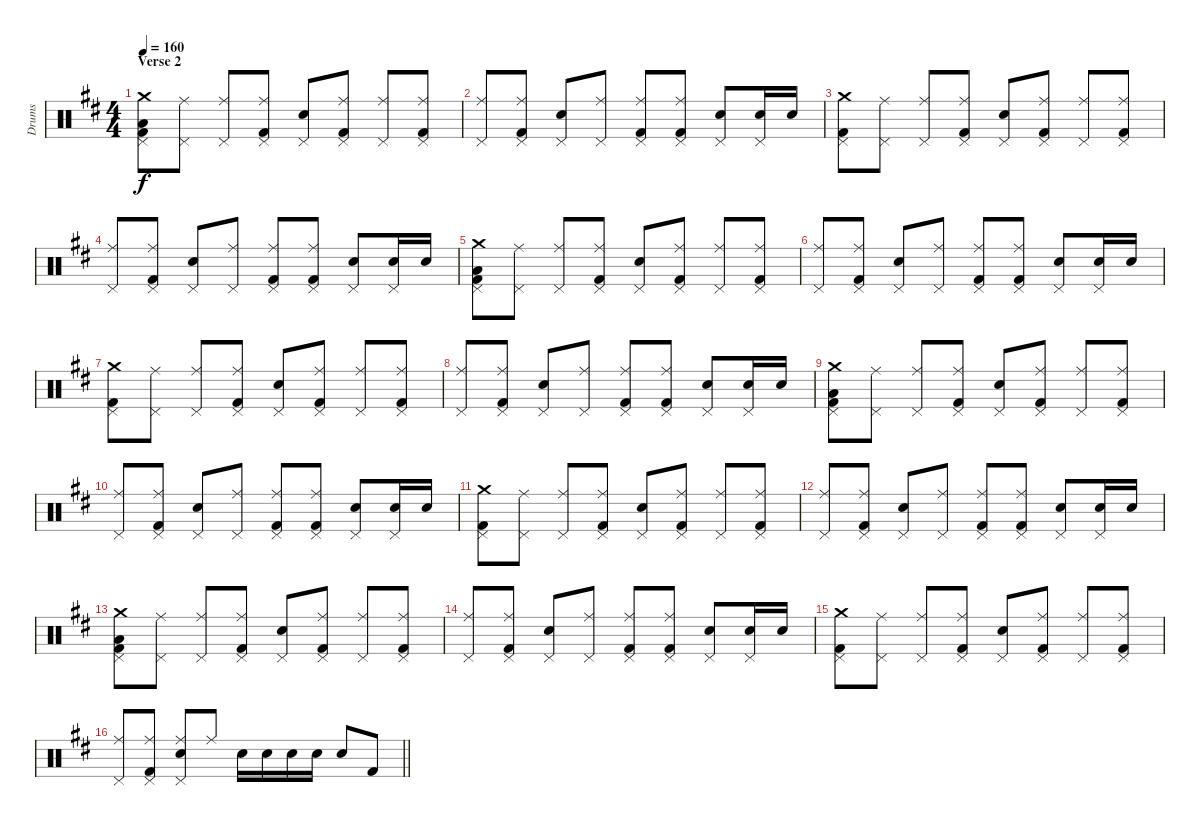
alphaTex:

\track ("Drums" "Drums") {instrument percussion}
\staff {score}
\articulation defaults
\ts (4 4)
\section ("" "Verse 2")
\tempo 160
\clef neutral
\ks d
("Crash medium (hit)" "Pedal Hi-Hat (hit)" "Low Floor Tom (hit)" "Kick (hit) 2").8{dy f} ("Ride (middle)" "Pedal Hi-Hat (hit)").8 ("Ride (middle)" "Pedal Hi-Hat (hit)").8 ("Ride (middle)" "Pedal Hi-Hat (hit)" "Kick (hit) 2").8 ("Electric Snare (hit)" "Pedal Hi-Hat (hit)").8 ("Ride (middle)" "Pedal Hi-Hat (hit)" "Kick (hit) 2").8 ("Ride (middle)" "Pedal Hi-Hat (hit)").8 ("Ride (middle)" "Pedal Hi-Hat (hit)" "Kick (hit) 2").8 |
("Ride (middle)" "Pedal Hi-Hat (hit)").8 ("Ride (middle)" "Pedal Hi-Hat (hit)" "Kick (hit) 2").8 ("Electric Snare (hit)" "Pedal Hi-Hat (hit)").8 ("Ride (middle)" "Pedal Hi-Hat (hit)").8 ("Ride (middle)" "Pedal Hi-Hat (hit)" "Kick (hit) 2").8 ("Ride (middle)" "Pedal Hi-Hat (hit)" "Kick (hit) 2").8 ("Electric Snare (hit)" "Pedal Hi-Hat (hit)").8 ("Snare (hit) 2" "Pedal Hi-Hat (hit)").16 "Snare (hit) 2".16 |
("Crash medium (hit)" "Pedal Hi-Hat (hit)" "Kick (hit) 2").8 ("Ride (middle)" "Pedal Hi-Hat (hit)").8 ("Ride (middle)" "Pedal Hi-Hat (hit)").8 ("Ride (middle)" "Pedal Hi-Hat (hit)" "Kick (hit) 2").8 ("Electric Snare (hit)" "Pedal Hi-Hat (hit)").8 ("Ride (middle)" "Pedal Hi-Hat (hit)" "Kick (hit) 2").8 ("Ride (middle)" "Pedal Hi-Hat (hit)").8 ("Ride (middle)" "Pedal Hi-Hat (hit)" "Kick (hit) 2").8 |
("Ride (middle)" "Pedal Hi-Hat (hit)").8 ("Ride (middle)" "Pedal Hi-Hat (hit)" "Kick (hit) 2").8 ("Electric Snare (hit)" "Pedal Hi-Hat (hit)").8 ("Ride (middle)" "Pedal Hi-Hat (hit)").8 ("Ride (middle)" "Pedal Hi-Hat (hit)" "Kick (hit) 2").8 ("Ride (middle)" "Pedal Hi-Hat (hit)" "Kick (hit) 2").8 ("Electric Snare (hit)" "Pedal Hi-Hat (hit)").8 ("Snare (hit) 2" "Pedal Hi-Hat (hit)").16 "Snare (hit) 2".16 |
("Crash medium (hit)" "Pedal Hi-Hat (hit)" "Low Floor Tom (hit)" "Kick (hit) 2").8 ("Ride (middle)" "Pedal Hi-Hat (hit)").8 ("Ride (middle)" "Pedal Hi-Hat (hit)").8 ("Ride (middle)" "Pedal Hi-Hat (hit)" "Kick (hit) 2").8 ("Electric Snare (hit)" "Pedal Hi-Hat (hit)").8 ("Ride (middle)" "Pedal Hi-Hat (hit)" "Kick (hit) 2").8 ("Ride (middle)" "Pedal Hi-Hat (hit)").8 ("Ride (middle)" "Pedal Hi-Hat (hit)" "Kick (hit) 2").8 |
("Ride (middle)" "Pedal Hi-Hat (hit)").8 ("Ride (middle)" "Pedal Hi-Hat (hit)" "Kick (hit) 2").8 ("Electric Snare (hit)" "Pedal Hi-Hat (hit)").8 ("Ride (middle)" "Pedal Hi-Hat (hit)").8 ("Ride (middle)" "Pedal Hi-Hat (hit)" "Kick (hit) 2").8 ("Ride (middle)" "Pedal Hi-Hat (hit)" "Kick (hit) 2").8 ("Electric Snare (hit)" "Pedal Hi-Hat (hit)").8 ("Snare (hit) 2" "Pedal Hi-Hat (hit)").16 "Snare (hit) 2".16 |
("Crash medium (hit)" "Pedal Hi-Hat (hit)" "Kick (hit) 2").8 ("Ride (middle)" "Pedal Hi-Hat (hit)").8 ("Ride (middle)" "Pedal Hi-Hat (hit)").8 ("Ride (middle)" "Pedal Hi-Hat (hit)" "Kick (hit) 2").8 ("Electric Snare (hit)" "Pedal Hi-Hat (hit)").8 ("Ride (middle)" "Pedal Hi-Hat (hit)" "Kick (hit) 2").8 ("Ride (middle)" "Pedal Hi-Hat (hit)").8 ("Ride (middle)" "Pedal Hi-Hat (hit)" "Kick (hit) 2").8 |
("Ride (middle)" "Pedal Hi-Hat (hit)").8 ("Ride (middle)" "Pedal Hi-Hat (hit)" "Kick (hit) 2").8 ("Electric Snare (hit)" "Pedal Hi-Hat (hit)").8 ("Ride (middle)" "Pedal Hi-Hat (hit)").8 ("Ride (middle)" "Pedal Hi-Hat (hit)" "Kick (hit) 2").8 ("Ride (middle)" "Pedal Hi-Hat (hit)" "Kick (hit) 2").8 ("Electric Snare (hit)" "Pedal Hi-Hat (hit)").8 ("Snare (hit) 2" "Pedal Hi-Hat (hit)").16 "Snare (hit) 2".16 |
("Crash medium (hit)" "Pedal Hi-Hat (hit)" "Low Floor Tom (hit)" "Kick (hit) 2").8 ("Ride (middle)" "Pedal Hi-Hat (hit)").8 ("Ride (middle)" "Pedal Hi-Hat (hit)").8 ("Ride (middle)" "Pedal Hi-Hat (hit)" "Kick (hit) 2").8 ("Electric Snare (hit)" "Pedal Hi-Hat (hit)").8 ("Ride (middle)" "Pedal Hi-Hat (hit)" "Kick (hit) 2").8 ("Ride (middle)" "Pedal Hi-Hat (hit)").8 ("Ride (middle)" "Pedal Hi-Hat (hit)" "Kick (hit) 2").8 |
("Ride (middle)" "Pedal Hi-Hat (hit)").8 ("Ride (middle)" "Pedal Hi-Hat (hit)" "Kick (hit) 2").8 ("Electric Snare (hit)" "Pedal Hi-Hat (hit)").8 ("Ride (middle)" "Pedal Hi-Hat (hit)").8 ("Ride (middle)" "Pedal Hi-Hat (hit)" "Kick (hit) 2").8 ("Ride (middle)" "Pedal Hi-Hat (hit)" "Kick (hit) 2").8 ("Electric Snare (hit)" "Pedal Hi-Hat (hit)").8 ("Snare (hit) 2" "Pedal Hi-Hat (hit)").16 "Snare (hit) 2".16 |
("Crash medium (hit)" "Pedal Hi-Hat (hit)" "Kick (hit) 2").8 ("Ride (middle)" "Pedal Hi-Hat (hit)").8 ("Ride (middle)" "Pedal Hi-Hat (hit)").8 ("Ride (middle)" "Pedal Hi-Hat (hit)" "Kick (hit) 2").8 ("Electric Snare (hit)" "Pedal Hi-Hat (hit)").8 ("Ride (middle)" "Pedal Hi-Hat (hit)" "Kick (hit) 2").8 ("Ride (middle)" "Pedal Hi-Hat (hit)").8 ("Ride (middle)" "Pedal Hi-Hat (hit)" "Kick (hit) 2").8 |
("Ride (middle)" "Pedal Hi-Hat (hit)").8 ("Ride (middle)" "Pedal Hi-Hat (hit)" "Kick (hit) 2").8 ("Electric Snare (hit)" "Pedal Hi-Hat (hit)").8 ("Ride (middle)" "Pedal Hi-Hat (hit)").8 ("Ride (middle)" "Pedal Hi-Hat (hit)" "Kick (hit) 2").8 ("Ride (middle)" "Pedal Hi-Hat (hit)" "Kick (hit) 2").8 ("Electric Snare (hit)" "Pedal Hi-Hat (hit)").8 ("Snare (hit) 2" "Pedal Hi-Hat (hit)").16 "Snare (hit) 2".16 |
("Crash medium (hit)" "Pedal Hi-Hat (hit)" "Low Floor Tom (hit)" "Kick (hit) 2").8 ("Ride (middle)" "Pedal Hi-Hat (hit)").8 ("Ride (middle)" "Pedal Hi-Hat (hit)").8 ("Ride (middle)" "Pedal Hi-Hat (hit)" "Kick (hit) 2").8 ("Electric Snare (hit)" "Pedal Hi-Hat (hit)").8 ("Ride (middle)" "Pedal Hi-Hat (hit)" "Kick (hit) 2").8 ("Ride (middle)" "Pedal Hi-Hat (hit)").8 ("Ride (middle)" "Pedal Hi-Hat (hit)" "Kick (hit) 2").8 |
("Ride (middle)" "Pedal Hi-Hat (hit)").8 ("Ride (middle)" "Pedal Hi-Hat (hit)" "Kick (hit) 2").8 ("Electric Snare (hit)" "Pedal Hi-Hat (hit)").8 ("Ride (middle)" "Pedal Hi-Hat (hit)").8 ("Ride (middle)" "Pedal Hi-Hat (hit)" "Kick (hit) 2").8 ("Ride (middle)" "Pedal Hi-Hat (hit)" "Kick (hit) 2").8 ("Electric Snare (hit)" "Pedal Hi-Hat (hit)").8 ("Snare (hit) 2" "Pedal Hi-Hat (hit)").16 "Snare (hit) 2".16 |
("Crash medium (hit)" "Pedal Hi-Hat (hit)" "Kick (hit) 2").8 ("Ride (middle)" "Pedal Hi-Hat (hit)").8 ("Ride (middle)" "Pedal Hi-Hat (hit)").8 ("Ride (middle)" "Pedal Hi-Hat (hit)" "Kick (hit) 2").8 ("Electric Snare (hit)" "Pedal Hi-Hat (hit)").8 ("Ride (middle)" "Pedal Hi-Hat (hit)" "Kick (hit) 2").8 ("Ride (middle)" "Pedal Hi-Hat (hit)").8 ("Ride (middle)" "Pedal Hi-Hat (hit)" "Kick (hit) 2").8 |
\barLineRight lightlight
("Ride (middle)" "Pedal Hi-Hat (hit)").8 ("Ride (middle)" "Pedal Hi-Hat (hit)" "Kick (hit) 2").8 ("Ride (middle)" "Pedal Hi-Hat (hit)" "Electric Snare (hit)").8 "Ride (middle)".8 "Electric Snare (hit)".16 "Electric Snare (hit)".16 "Electric Snare (hit)".16 "Electric Snare (hit)".16 "Electric Snare (hit)".8 "Kick (hit) 2".8
